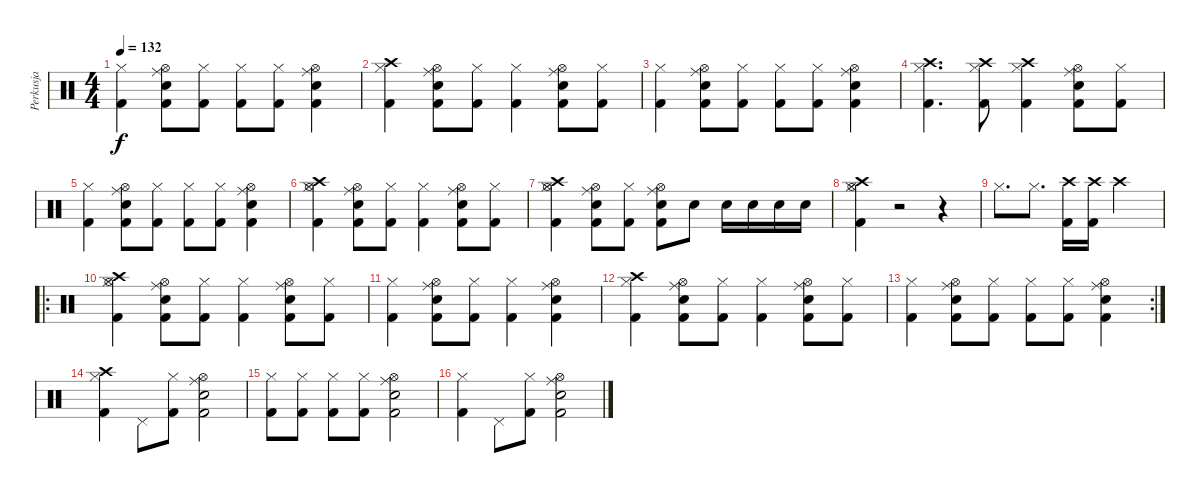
\track ("Perkusja" "Perkusja") {instrument percussion}
\staff {score}
\articulation defaults
\ts (4 4)
\tempo 132
\clef neutral
\ks c
("Hi-Hat (closed)" "Kick (hit) 2").4{dy f} ("Electric Snare (hit)" "Kick (hit) 2" "Ride (middle)" "Hi-Hat (open)").8 ("Hi-Hat (closed)" "Kick (hit) 2").8 ("Hi-Hat (closed)" "Kick (hit) 2").8 ("Hi-Hat (closed)" "Kick (hit) 2").8 ("Electric Snare (hit)" "Kick (hit) 2" "Ride (middle)" "Hi-Hat (open)").4 |
("Kick (hit) 2" "Hi-Hat (closed)" "Crash high (hit)").4 ("Electric Snare (hit)" "Kick (hit) 2" "Ride (middle)" "Hi-Hat (open)").8 ("Hi-Hat (closed)" "Kick (hit) 2").8 ("Hi-Hat (closed)" "Kick (hit) 2").4 ("Electric Snare (hit)" "Kick (hit) 2" "Ride (middle)" "Hi-Hat (open)").8 ("Hi-Hat (closed)" "Kick (hit) 2").8 |
("Hi-Hat (closed)" "Kick (hit) 2").4 ("Electric Snare (hit)" "Kick (hit) 2" "Ride (middle)" "Hi-Hat (open)").8 ("Hi-Hat (closed)" "Kick (hit) 2").8 ("Hi-Hat (closed)" "Kick (hit) 2").8 ("Hi-Hat (closed)" "Kick (hit) 2").8 ("Electric Snare (hit)" "Kick (hit) 2" "Ride (middle)" "Hi-Hat (open)").4 |
("Kick (hit) 2" "Hi-Hat (closed)" "Crash high (hit)").4{d} ("Kick (hit) 2" "Hi-Hat (closed)" "Crash high (hit)").8 ("Kick (hit) 2" "Hi-Hat (closed)" "Crash high (hit)").4 ("Electric Snare (hit)" "Kick (hit) 2" "Ride (middle)" "Hi-Hat (open)").8 ("Hi-Hat (closed)" "Kick (hit) 2").8 |
("Hi-Hat (closed)" "Kick (hit) 2").4 ("Electric Snare (hit)" "Kick (hit) 2" "Ride (middle)" "Hi-Hat (open)").8 ("Hi-Hat (closed)" "Kick (hit) 2").8 ("Hi-Hat (closed)" "Kick (hit) 2").8 ("Hi-Hat (closed)" "Kick (hit) 2").8 ("Electric Snare (hit)" "Kick (hit) 2" "Ride (middle)" "Hi-Hat (open)").4 |
("Kick (hit) 2" "Hi-Hat (closed)" "Crash high (hit)" "Hi-Hat (open)").4 ("Electric Snare (hit)" "Kick (hit) 2" "Ride (middle)" "Hi-Hat (open)").8 ("Hi-Hat (closed)" "Kick (hit) 2").8 ("Hi-Hat (closed)" "Kick (hit) 2").4 ("Electric Snare (hit)" "Kick (hit) 2" "Ride (middle)" "Hi-Hat (open)").8 ("Hi-Hat (closed)" "Kick (hit) 2").8 |
("Kick (hit) 2" "Hi-Hat (closed)" "Crash high (hit)" "Hi-Hat (open)").4 ("Electric Snare (hit)" "Kick (hit) 2" "Ride (middle)" "Hi-Hat (open)").8 ("Hi-Hat (closed)" "Kick (hit) 2").8 ("Electric Snare (hit)" "Kick (hit) 2" "Ride (middle)" "Hi-Hat (open)").8 "Electric Snare (hit)".8 "Electric Snare (hit)".16 "Electric Snare (hit)".16 "Electric Snare (hit)".16 "Electric Snare (hit)".16 |
("Kick (hit) 2" "Hi-Hat (closed)" "Crash high (hit)" "Hi-Hat (open)").4 r.2 r.4 |
"Hi-Hat (closed)".8{d} "Hi-Hat (closed)".8{d} ("Crash high (hit)" "Kick (hit) 2").16 ("Crash high (hit)" "Kick (hit) 2").16 "Crash high (hit)".2 |
\ro
("Kick (hit) 2" "Hi-Hat (closed)" "Crash high (hit)" "Hi-Hat (open)").4 ("Electric Snare (hit)" "Kick (hit) 2" "Ride (middle)" "Hi-Hat (open)").8 ("Hi-Hat (closed)" "Kick (hit) 2").8 ("Hi-Hat (closed)" "Kick (hit) 2").4 ("Electric Snare (hit)" "Kick (hit) 2" "Ride (middle)" "Hi-Hat (open)").8 ("Hi-Hat (closed)" "Kick (hit) 2").8 |
("Hi-Hat (closed)" "Kick (hit) 2").4 ("Electric Snare (hit)" "Kick (hit) 2" "Ride (middle)" "Hi-Hat (open)").8 ("Hi-Hat (closed)" "Kick (hit) 2").8 ("Hi-Hat (closed)" "Kick (hit) 2").4 ("Electric Snare (hit)" "Kick (hit) 2" "Ride (middle)" "Hi-Hat (open)").4 |
("Kick (hit) 2" "Hi-Hat (closed)" "Crash high (hit)").4 ("Electric Snare (hit)" "Kick (hit) 2" "Ride (middle)" "Hi-Hat (open)").8 ("Hi-Hat (closed)" "Kick (hit) 2").8 ("Hi-Hat (closed)" "Kick (hit) 2").4 ("Electric Snare (hit)" "Kick (hit) 2" "Ride (middle)" "Hi-Hat (open)").8 ("Hi-Hat (closed)" "Kick (hit) 2").8 |
\rc 2
("Hi-Hat (closed)" "Kick (hit) 2").4 ("Electric Snare (hit)" "Kick (hit) 2" "Ride (middle)" "Hi-Hat (open)").8 ("Hi-Hat (closed)" "Kick (hit) 2").8 ("Hi-Hat (closed)" "Kick (hit) 2").8 ("Hi-Hat (closed)" "Kick (hit) 2").8 ("Electric Snare (hit)" "Kick (hit) 2" "Ride (middle)" "Hi-Hat (open)").4 |
("Hi-Hat (closed)" "Kick (hit) 2" "Crash high (hit)").4 "Pedal Hi-Hat (hit)".8 ("Hi-Hat (closed)" "Kick (hit) 2").8 ("Electric Snare (hit)" "Kick (hit) 2" "Ride (middle)" "Hi-Hat (open)").2 |
("Hi-Hat (closed)" "Kick (hit) 2").8 ("Hi-Hat (closed)" "Kick (hit) 2").8 ("Hi-Hat (closed)" "Kick (hit) 2").8 ("Hi-Hat (closed)" "Kick (hit) 2").8 ("Electric Snare (hit)" "Kick (hit) 2" "Ride (middle)" "Hi-Hat (open)").2 |
("Hi-Hat (closed)" "Kick (hit) 2").4 "Pedal Hi-Hat (hit)".8 ("Hi-Hat (closed)" "Kick (hit) 2").8 ("Electric Snare (hit)" "Kick (hit) 2" "Ride (middle)" "Hi-Hat (open)").2
